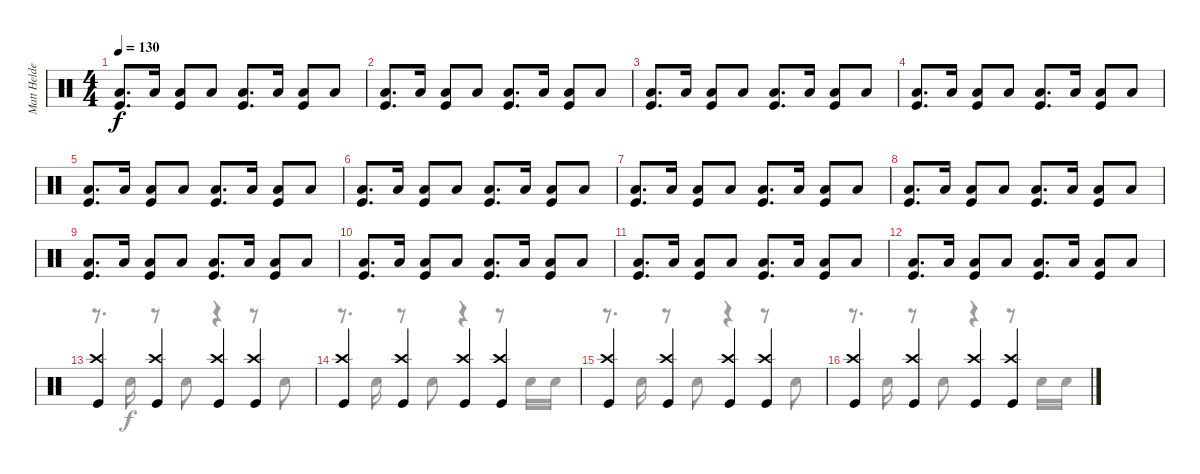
\track ("Matt Helders (Drums)" "Matt Helde") {instrument percussion}
\staff {score}
\articulation defaults
\voice
\ts (4 4)
\tempo 130
\clef neutral
\ks c
("Low Floor Tom (hit)" "Kick (hit)").8{d dy f} "Low Floor Tom (hit)".16 ("Low Floor Tom (hit)" "Kick (hit)").8 "Low Floor Tom (hit)".8 ("Low Floor Tom (hit)" "Kick (hit)").8{d} "Low Floor Tom (hit)".16 ("Low Floor Tom (hit)" "Kick (hit)").8 "Low Floor Tom (hit)".8 |
("Low Floor Tom (hit)" "Kick (hit)").8{d} "Low Floor Tom (hit)".16 ("Low Floor Tom (hit)" "Kick (hit)").8 "Low Floor Tom (hit)".8 ("Low Floor Tom (hit)" "Kick (hit)").8{d} "Low Floor Tom (hit)".16 ("Low Floor Tom (hit)" "Kick (hit)").8 "Low Floor Tom (hit)".8 |
("Low Floor Tom (hit)" "Kick (hit)").8{d} "Low Floor Tom (hit)".16 ("Low Floor Tom (hit)" "Kick (hit)").8 "Low Floor Tom (hit)".8 ("Low Floor Tom (hit)" "Kick (hit)").8{d} "Low Floor Tom (hit)".16 ("Low Floor Tom (hit)" "Kick (hit)").8 "Low Floor Tom (hit)".8 |
("Low Floor Tom (hit)" "Kick (hit)").8{d} "Low Floor Tom (hit)".16 ("Low Floor Tom (hit)" "Kick (hit)").8 "Low Floor Tom (hit)".8 ("Low Floor Tom (hit)" "Kick (hit)").8{d} "Low Floor Tom (hit)".16 ("Low Floor Tom (hit)" "Kick (hit)").8 "Low Floor Tom (hit)".8 |
("Low Floor Tom (hit)" "Kick (hit)").8{d} "Low Floor Tom (hit)".16 ("Low Floor Tom (hit)" "Kick (hit)").8 "Low Floor Tom (hit)".8 ("Low Floor Tom (hit)" "Kick (hit)").8{d} "Low Floor Tom (hit)".16 ("Low Floor Tom (hit)" "Kick (hit)").8 "Low Floor Tom (hit)".8 |
("Low Floor Tom (hit)" "Kick (hit)").8{d} "Low Floor Tom (hit)".16 ("Low Floor Tom (hit)" "Kick (hit)").8 "Low Floor Tom (hit)".8 ("Low Floor Tom (hit)" "Kick (hit)").8{d} "Low Floor Tom (hit)".16 ("Low Floor Tom (hit)" "Kick (hit)").8 "Low Floor Tom (hit)".8 |
("Low Floor Tom (hit)" "Kick (hit)").8{d} "Low Floor Tom (hit)".16 ("Low Floor Tom (hit)" "Kick (hit)").8 "Low Floor Tom (hit)".8 ("Low Floor Tom (hit)" "Kick (hit)").8{d} "Low Floor Tom (hit)".16 ("Low Floor Tom (hit)" "Kick (hit)").8 "Low Floor Tom (hit)".8 |
("Low Floor Tom (hit)" "Kick (hit)").8{d} "Low Floor Tom (hit)".16 ("Low Floor Tom (hit)" "Kick (hit)").8 "Low Floor Tom (hit)".8 ("Low Floor Tom (hit)" "Kick (hit)").8{d} "Low Floor Tom (hit)".16 ("Low Floor Tom (hit)" "Kick (hit)").8 "Low Floor Tom (hit)".8 |
("Low Floor Tom (hit)" "Kick (hit)").8{d} "Low Floor Tom (hit)".16 ("Low Floor Tom (hit)" "Kick (hit)").8 "Low Floor Tom (hit)".8 ("Low Floor Tom (hit)" "Kick (hit)").8{d} "Low Floor Tom (hit)".16 ("Low Floor Tom (hit)" "Kick (hit)").8 "Low Floor Tom (hit)".8 |
("Low Floor Tom (hit)" "Kick (hit)").8{d} "Low Floor Tom (hit)".16 ("Low Floor Tom (hit)" "Kick (hit)").8 "Low Floor Tom (hit)".8 ("Low Floor Tom (hit)" "Kick (hit)").8{d} "Low Floor Tom (hit)".16 ("Low Floor Tom (hit)" "Kick (hit)").8 "Low Floor Tom (hit)".8 |
("Low Floor Tom (hit)" "Kick (hit)").8{d} "Low Floor Tom (hit)".16 ("Low Floor Tom (hit)" "Kick (hit)").8 "Low Floor Tom (hit)".8 ("Low Floor Tom (hit)" "Kick (hit)").8{d} "Low Floor Tom (hit)".16 ("Low Floor Tom (hit)" "Kick (hit)").8 "Low Floor Tom (hit)".8 |
("Low Floor Tom (hit)" "Kick (hit)").8{d} "Low Floor Tom (hit)".16 ("Low Floor Tom (hit)" "Kick (hit)").8 "Low Floor Tom (hit)".8 ("Low Floor Tom (hit)" "Kick (hit)").8{d} "Low Floor Tom (hit)".16 ("Low Floor Tom (hit)" "Kick (hit)").8 "Low Floor Tom (hit)".8 |
("Crash high (hit)" "Kick (hit)").4 ("Crash high (hit)" "Kick (hit)").4 ("Crash high (hit)" "Kick (hit)").4 ("Crash high (hit)" "Kick (hit)").4 |
("Crash high (hit)" "Kick (hit)").4 ("Crash high (hit)" "Kick (hit)").4 ("Crash high (hit)" "Kick (hit)").4 ("Crash high (hit)" "Kick (hit)").4 |
("Crash high (hit)" "Kick (hit)").4 ("Crash high (hit)" "Kick (hit)").4 ("Crash high (hit)" "Kick (hit)").4 ("Crash high (hit)" "Kick (hit)").4 |
("Crash high (hit)" "Kick (hit)").4 ("Crash high (hit)" "Kick (hit)").4 ("Crash high (hit)" "Kick (hit)").4 ("Crash high (hit)" "Kick (hit)").4
\voice
\clef neutral
\ottava regular
\simile none
\ks c
|
|
|
|
|
|
|
|
|
|
|
|
r.8{d} "Snare (hit) 2".16 r.8 "Snare (hit) 2".8 r.4 r.8 "Snare (hit) 2".8 |
r.8{d} "Snare (hit) 2".16 r.8 "Snare (hit) 2".8 r.4 r.8 "Snare (hit) 2".16 "Snare (hit) 2".16 |
r.8{d} "Snare (hit) 2".16 r.8 "Snare (hit) 2".8 r.4 r.8 "Snare (hit) 2".8 |
r.8{d} "Snare (hit) 2".16 r.8 "Snare (hit) 2".8 r.4 r.8 "Snare (hit) 2".16 "Snare (hit) 2".16
